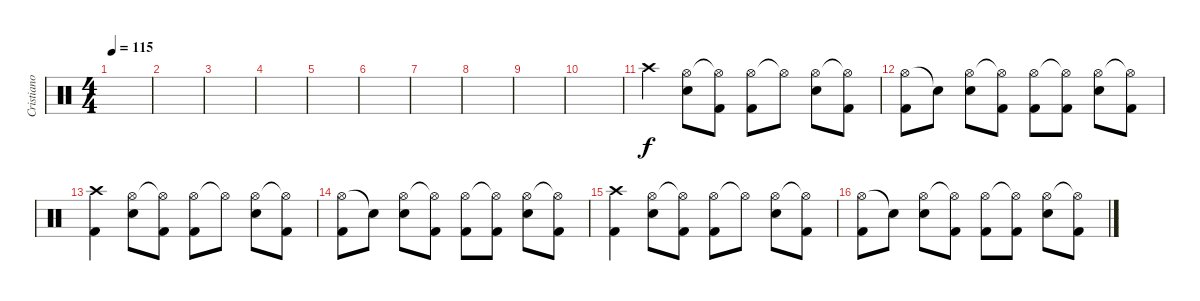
\track ("Cristiano Mozzati" "Cristiano ") {instrument percussion}
\staff {score}
\articulation defaults
\ts (4 4)
\tempo 115
\clef neutral
\ks c
|
|
|
|
|
|
|
|
|
|
"Crash high (hit)".4 ("Hi-Hat (open)" "Electric Snare (hit)").8 ("Hi-Hat (open)"{t} "Kick (hit) 2").8 ("Hi-Hat (open)" "Kick (hit) 2").8 "Hi-Hat (open)"{t}.8 ("Hi-Hat (open)" "Electric Snare (hit)").8 ("Hi-Hat (open)"{t} "Kick (hit) 2").8 |
("Hi-Hat (open)" "Kick (hit) 2").8 "Snare (hit)"{t}.8 ("Hi-Hat (open)" "Electric Snare (hit)").8 ("Hi-Hat (open)"{t} "Kick (hit) 2").8 ("Hi-Hat (open)" "Kick (hit) 2").8 ("Hi-Hat (open)"{t} "Kick (hit) 2").8 ("Hi-Hat (open)" "Electric Snare (hit)").8 ("Hi-Hat (open)"{t} "Kick (hit) 2").8 |
("Crash high (hit)" "Kick (hit) 2").4 ("Hi-Hat (open)" "Electric Snare (hit)").8 ("Hi-Hat (open)"{t} "Kick (hit) 2").8 ("Hi-Hat (open)" "Kick (hit) 2").8 "Hi-Hat (open)"{t}.8 ("Hi-Hat (open)" "Electric Snare (hit)").8 ("Hi-Hat (open)"{t} "Kick (hit) 2").8 |
("Hi-Hat (open)" "Kick (hit) 2").8 "Snare (hit)"{t}.8 ("Hi-Hat (open)" "Electric Snare (hit)").8 ("Hi-Hat (open)"{t} "Kick (hit) 2").8 ("Hi-Hat (open)" "Kick (hit) 2").8 ("Hi-Hat (open)"{t} "Kick (hit) 2").8 ("Hi-Hat (open)" "Electric Snare (hit)").8 ("Hi-Hat (open)"{t} "Kick (hit) 2").8 |
("Crash high (hit)" "Kick (hit) 2").4 ("Hi-Hat (open)" "Electric Snare (hit)").8 ("Hi-Hat (open)"{t} "Kick (hit) 2").8 ("Hi-Hat (open)" "Kick (hit) 2").8 "Hi-Hat (open)"{t}.8 ("Hi-Hat (open)" "Electric Snare (hit)").8 ("Hi-Hat (open)"{t} "Kick (hit) 2").8 |
("Hi-Hat (open)" "Kick (hit) 2").8 "Snare (hit)"{t}.8 ("Hi-Hat (open)" "Electric Snare (hit)").8 ("Hi-Hat (open)"{t} "Kick (hit) 2").8 ("Hi-Hat (open)" "Kick (hit) 2").8 ("Hi-Hat (open)"{t} "Kick (hit) 2").8 ("Hi-Hat (open)" "Electric Snare (hit)").8 ("Hi-Hat (open)"{t} "Kick (hit) 2").8
